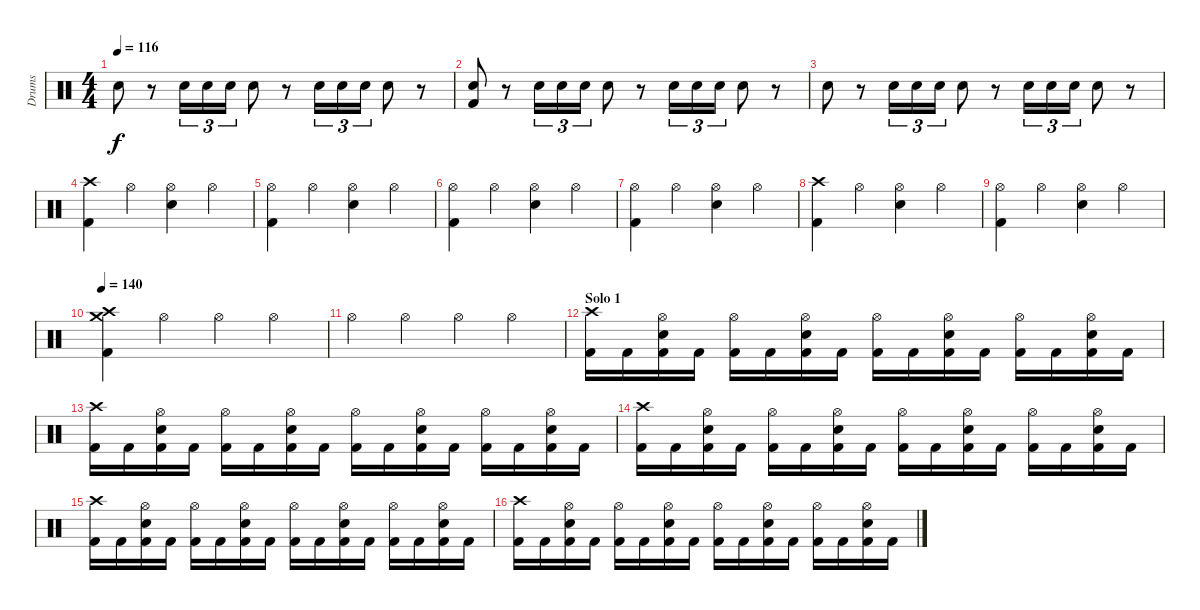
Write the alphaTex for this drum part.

\track ("Drums" "Drums") {instrument percussion}
\staff {score}
\articulation defaults
\ts (4 4)
\tempo 116
\clef neutral
\ks c "Electric Snare (hit)".8{dy f}
r.8 "Electric Snare (hit)".16{tu (3 2)} "Electric Snare (hit)".16{tu (3 2)} "Electric Snare (hit)".16{tu (3 2)} "Electric Snare (hit)".8 r.8 "Electric Snare (hit)".16{tu (3 2)} "Electric Snare (hit)".16{tu (3 2)} "Electric Snare (hit)".16{tu (3 2)} "Electric Snare (hit)".8 r.8 |
("Electric Snare (hit)" "Kick (hit) 2").8 r.8 "Electric Snare (hit)".16{tu (3 2)} "Electric Snare (hit)".16{tu (3 2)} "Electric Snare (hit)".16{tu (3 2)} "Electric Snare (hit)".8 r.8 "Electric Snare (hit)".16{tu (3 2)} "Electric Snare (hit)".16{tu (3 2)} "Electric Snare (hit)".16{tu (3 2)} "Electric Snare (hit)".8 r.8 |
"Electric Snare (hit)".8 r.8 "Electric Snare (hit)".16{tu (3 2)} "Electric Snare (hit)".16{tu (3 2)} "Electric Snare (hit)".16{tu (3 2)} "Electric Snare (hit)".8 r.8 "Electric Snare (hit)".16{tu (3 2)} "Electric Snare (hit)".16{tu (3 2)} "Electric Snare (hit)".16{tu (3 2)} "Electric Snare (hit)".8 r.8 |
("Crash high (hit)" "Kick (hit) 2").4 "Hi-Hat (open)".4 ("Hi-Hat (open)" "Electric Snare (hit)").4 "Hi-Hat (open)".4 |
("Hi-Hat (open)" "Kick (hit) 2").4 "Hi-Hat (open)".4 ("Hi-Hat (open)" "Electric Snare (hit)").4 "Hi-Hat (open)".4 |
("Hi-Hat (open)" "Kick (hit) 2").4 "Hi-Hat (open)".4 ("Hi-Hat (open)" "Electric Snare (hit)").4 "Hi-Hat (open)".4 |
("Hi-Hat (open)" "Kick (hit) 2").4 "Hi-Hat (open)".4 ("Hi-Hat (open)" "Electric Snare (hit)").4 "Hi-Hat (open)".4 |
("Crash high (hit)" "Kick (hit) 2").4 "Hi-Hat (open)".4 ("Hi-Hat (open)" "Electric Snare (hit)").4 "Hi-Hat (open)".4 |
("Hi-Hat (open)" "Kick (hit) 2").4 "Hi-Hat (open)".4 ("Hi-Hat (open)" "Electric Snare (hit)").4 "Hi-Hat (open)".4 |
\tempo 140
("Crash high (hit)" "Crash medium (hit)" "Kick (hit) 2").4 "Hi-Hat (open)".4 "Hi-Hat (open)".4 "Hi-Hat (open)".4 |
"Hi-Hat (open)".4 "Hi-Hat (open)".4 "Hi-Hat (open)".4 "Hi-Hat (open)".4 |
\section ("" "Solo 1")
("Crash high (hit)" "Kick (hit) 2").16 "Kick (hit) 2".16 ("Hi-Hat (open)" "Electric Snare (hit)" "Kick (hit) 2").16 "Kick (hit) 2".16 ("Hi-Hat (open)" "Kick (hit) 2").16 "Kick (hit) 2".16 ("Hi-Hat (open)" "Electric Snare (hit)" "Kick (hit) 2").16 "Kick (hit) 2".16 ("Hi-Hat (open)" "Kick (hit) 2").16 "Kick (hit) 2".16 ("Hi-Hat (open)" "Electric Snare (hit)" "Kick (hit) 2").16 "Kick (hit) 2".16 ("Hi-Hat (open)" "Kick (hit) 2").16 "Kick (hit) 2".16 ("Hi-Hat (open)" "Electric Snare (hit)" "Kick (hit) 2").16 "Kick (hit) 2".16 |
("Crash high (hit)" "Kick (hit) 2").16 "Kick (hit) 2".16 ("Hi-Hat (open)" "Electric Snare (hit)" "Kick (hit) 2").16 "Kick (hit) 2".16 ("Hi-Hat (open)" "Kick (hit) 2").16 "Kick (hit) 2".16 ("Hi-Hat (open)" "Electric Snare (hit)" "Kick (hit) 2").16 "Kick (hit) 2".16 ("Hi-Hat (open)" "Kick (hit) 2").16 "Kick (hit) 2".16 ("Hi-Hat (open)" "Electric Snare (hit)" "Kick (hit) 2").16 "Kick (hit) 2".16 ("Hi-Hat (open)" "Kick (hit) 2").16 "Kick (hit) 2".16 ("Hi-Hat (open)" "Electric Snare (hit)" "Kick (hit) 2").16 "Kick (hit) 2".16 |
("Crash high (hit)" "Kick (hit) 2").16 "Kick (hit) 2".16 ("Hi-Hat (open)" "Electric Snare (hit)" "Kick (hit) 2").16 "Kick (hit) 2".16 ("Hi-Hat (open)" "Kick (hit) 2").16 "Kick (hit) 2".16 ("Hi-Hat (open)" "Electric Snare (hit)" "Kick (hit) 2").16 "Kick (hit) 2".16 ("Hi-Hat (open)" "Kick (hit) 2").16 "Kick (hit) 2".16 ("Hi-Hat (open)" "Electric Snare (hit)" "Kick (hit) 2").16 "Kick (hit) 2".16 ("Hi-Hat (open)" "Kick (hit) 2").16 "Kick (hit) 2".16 ("Hi-Hat (open)" "Electric Snare (hit)" "Kick (hit) 2").16 "Kick (hit) 2".16 |
("Crash high (hit)" "Kick (hit) 2").16 "Kick (hit) 2".16 ("Hi-Hat (open)" "Electric Snare (hit)" "Kick (hit) 2").16 "Kick (hit) 2".16 ("Hi-Hat (open)" "Kick (hit) 2").16 "Kick (hit) 2".16 ("Hi-Hat (open)" "Electric Snare (hit)" "Kick (hit) 2").16 "Kick (hit) 2".16 ("Hi-Hat (open)" "Kick (hit) 2").16 "Kick (hit) 2".16 ("Hi-Hat (open)" "Electric Snare (hit)" "Kick (hit) 2").16 "Kick (hit) 2".16 ("Hi-Hat (open)" "Kick (hit) 2").16 "Kick (hit) 2".16 ("Hi-Hat (open)" "Electric Snare (hit)" "Kick (hit) 2").16 "Kick (hit) 2".16 |
("Crash high (hit)" "Kick (hit) 2").16 "Kick (hit) 2".16 ("Hi-Hat (open)" "Electric Snare (hit)" "Kick (hit) 2").16 "Kick (hit) 2".16 ("Hi-Hat (open)" "Kick (hit) 2").16 "Kick (hit) 2".16 ("Hi-Hat (open)" "Electric Snare (hit)" "Kick (hit) 2").16 "Kick (hit) 2".16 ("Hi-Hat (open)" "Kick (hit) 2").16 "Kick (hit) 2".16 ("Hi-Hat (open)" "Electric Snare (hit)" "Kick (hit) 2").16 "Kick (hit) 2".16 ("Hi-Hat (open)" "Kick (hit) 2").16 "Kick (hit) 2".16 ("Hi-Hat (open)" "Electric Snare (hit)" "Kick (hit) 2").16 "Kick (hit) 2".16
